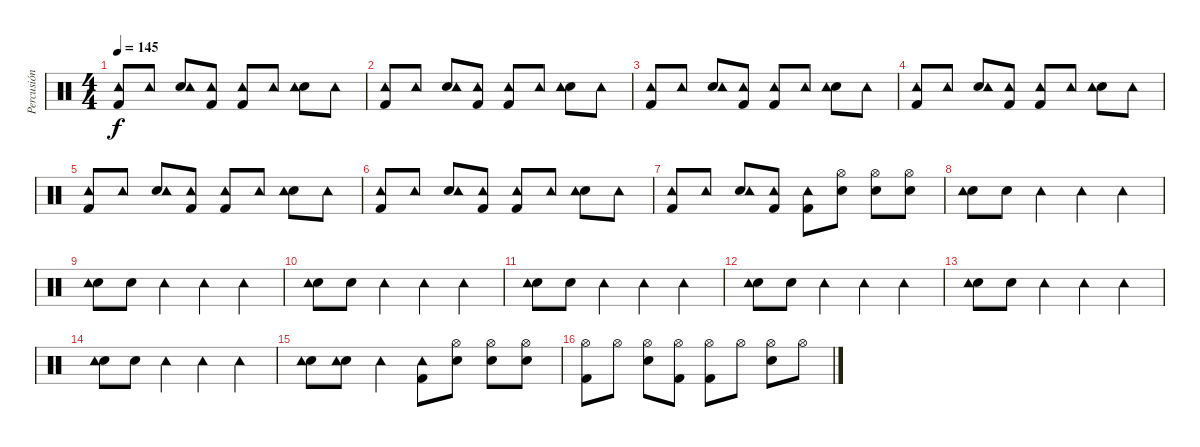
\track ("Percusión" "Percusión") {instrument percussion}
\staff {score}
\articulation defaults
\ts (4 4)
\tempo 145
\clef neutral
\ks c
("Kick (hit) 2" "Tambourine (hit)").8{dy f} "Tambourine (hit)".8 ("Electric Snare (hit)" "Tambourine (hit)").8 ("Kick (hit) 2" "Tambourine (hit)").8 ("Kick (hit) 2" "Tambourine (hit)").8 "Tambourine (hit)".8 ("Electric Snare (hit)" "Tambourine (hit)").8 "Tambourine (hit)".8 |
("Kick (hit) 2" "Tambourine (hit)").8 "Tambourine (hit)".8 ("Electric Snare (hit)" "Tambourine (hit)").8 ("Kick (hit) 2" "Tambourine (hit)").8 ("Kick (hit) 2" "Tambourine (hit)").8 "Tambourine (hit)".8 ("Electric Snare (hit)" "Tambourine (hit)").8 "Tambourine (hit)".8 |
("Kick (hit) 2" "Tambourine (hit)").8 "Tambourine (hit)".8 ("Electric Snare (hit)" "Tambourine (hit)").8 ("Kick (hit) 2" "Tambourine (hit)").8 ("Kick (hit) 2" "Tambourine (hit)").8 "Tambourine (hit)".8 ("Electric Snare (hit)" "Tambourine (hit)").8 "Tambourine (hit)".8 |
("Kick (hit) 2" "Tambourine (hit)").8 "Tambourine (hit)".8 ("Electric Snare (hit)" "Tambourine (hit)").8 ("Kick (hit) 2" "Tambourine (hit)").8 ("Kick (hit) 2" "Tambourine (hit)").8 "Tambourine (hit)".8 ("Electric Snare (hit)" "Tambourine (hit)").8 "Tambourine (hit)".8 |
("Kick (hit) 2" "Tambourine (hit)").8 "Tambourine (hit)".8 ("Electric Snare (hit)" "Tambourine (hit)").8 ("Kick (hit) 2" "Tambourine (hit)").8 ("Kick (hit) 2" "Tambourine (hit)").8 "Tambourine (hit)".8 ("Electric Snare (hit)" "Tambourine (hit)").8 "Tambourine (hit)".8 |
("Kick (hit) 2" "Tambourine (hit)").8 "Tambourine (hit)".8 ("Electric Snare (hit)" "Tambourine (hit)").8 ("Kick (hit) 2" "Tambourine (hit)").8 ("Kick (hit) 2" "Tambourine (hit)").8 "Tambourine (hit)".8 ("Electric Snare (hit)" "Tambourine (hit)").8 "Tambourine (hit)".8 |
("Kick (hit) 2" "Tambourine (hit)").8 "Tambourine (hit)".8 ("Electric Snare (hit)" "Tambourine (hit)").8 ("Kick (hit) 2" "Tambourine (hit)").8 ("Kick (hit) 2" "Tambourine (hit)").8 ("Electric Snare (hit)" "Hi-Hat (open)").8 ("Electric Snare (hit)" "Hi-Hat (open)").8 ("Electric Snare (hit)" "Hi-Hat (open)").8 |
("Electric Snare (hit)" "Tambourine (hit)").8 "Electric Snare (hit)".8 "Tambourine (hit)".4 "Tambourine (hit)".4 "Tambourine (hit)".4 |
("Electric Snare (hit)" "Tambourine (hit)").8 "Electric Snare (hit)".8 "Tambourine (hit)".4 "Tambourine (hit)".4 "Tambourine (hit)".4 |
("Electric Snare (hit)" "Tambourine (hit)").8 "Electric Snare (hit)".8 "Tambourine (hit)".4 "Tambourine (hit)".4 "Tambourine (hit)".4 |
("Electric Snare (hit)" "Tambourine (hit)").8 "Electric Snare (hit)".8 "Tambourine (hit)".4 "Tambourine (hit)".4 "Tambourine (hit)".4 |
("Electric Snare (hit)" "Tambourine (hit)").8 "Electric Snare (hit)".8 "Tambourine (hit)".4 "Tambourine (hit)".4 "Tambourine (hit)".4 |
("Electric Snare (hit)" "Tambourine (hit)").8 "Electric Snare (hit)".8 "Tambourine (hit)".4 "Tambourine (hit)".4 "Tambourine (hit)".4 |
("Electric Snare (hit)" "Tambourine (hit)").8 "Electric Snare (hit)".8 "Tambourine (hit)".4 "Tambourine (hit)".4 "Tambourine (hit)".4 |
("Electric Snare (hit)" "Tambourine (hit)").8 ("Electric Snare (hit)" "Tambourine (hit)").8 "Tambourine (hit)".4 ("Kick (hit) 2" "Tambourine (hit)").8 ("Electric Snare (hit)" "Hi-Hat (open)").8 ("Electric Snare (hit)" "Hi-Hat (open)").8 ("Electric Snare (hit)" "Hi-Hat (open)").8 |
("Kick (hit) 2" "Hi-Hat (open)").8 "Hi-Hat (open)".8 ("Electric Snare (hit)" "Hi-Hat (open)").8 ("Kick (hit) 2" "Hi-Hat (open)").8 ("Kick (hit) 2" "Hi-Hat (open)").8 "Hi-Hat (open)".8 ("Electric Snare (hit)" "Hi-Hat (open)").8 "Hi-Hat (open)".8
